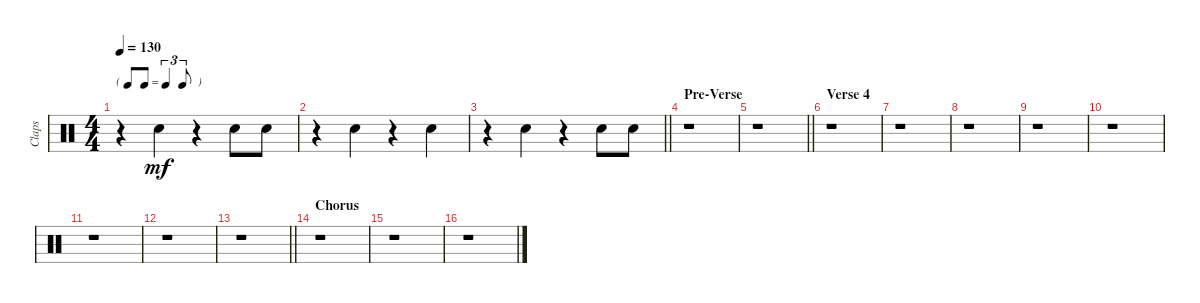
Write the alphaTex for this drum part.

\track ("Claps" "Claps") {instrument percussion}
\staff {score}
\articulation defaults
\ts (4 4)
\tf triplet8th
\tempo 130
\clef neutral
\ks c
r.4{dy mf} "Hand Clap (hit)".4 r.4 "Hand Clap (hit)".8 "Hand Clap (hit)".8 |
r.4 "Hand Clap (hit)".4 r.4 "Hand Clap (hit)".4 |
\barLineRight lightlight
r.4 "Hand Clap (hit)".4 r.4 "Hand Clap (hit)".8 "Hand Clap (hit)".8 |
\section ("" "Pre-Verse")
r.1 |
\barLineRight lightlight
r.1 |
\section ("" "Verse 4")
r.1 |
r.1 |
r.1 |
r.1 |
r.1 |
r.1 |
r.1 |
\barLineRight lightlight
r.1 |
\section ("" "Chorus")
r.1 |
r.1 |
r.1
